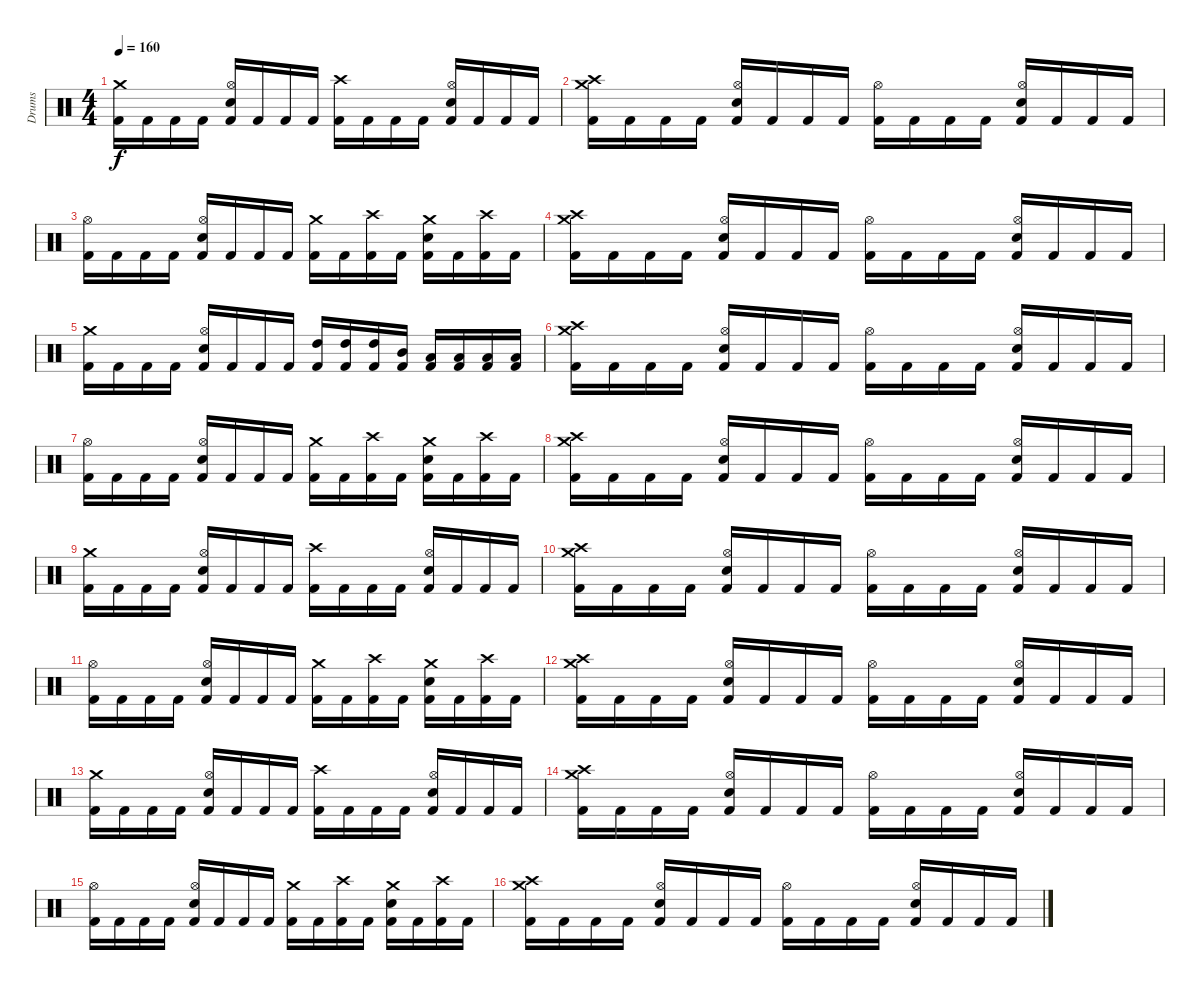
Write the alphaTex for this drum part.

\track ("Drums" "Drums") {instrument percussion}
\staff {score}
\articulation defaults
\ts (4 4)
\tempo 160
\clef neutral
\ks c
("Crash medium (hit)" "Kick (hit) 2").16{dy f} "Kick (hit) 2".16 "Kick (hit) 2".16 "Kick (hit) 2".16 ("Hi-Hat (open)" "Kick (hit) 2" "Snare (hit) 2").16 "Kick (hit) 2".16 "Kick (hit) 2".16 "Kick (hit) 2".16 ("Crash high (hit)" "Kick (hit) 2").16 "Kick (hit) 2".16 "Kick (hit) 2".16 "Kick (hit) 2".16 ("Hi-Hat (open)" "Kick (hit) 2" "Snare (hit) 2").16 "Kick (hit) 2".16 "Kick (hit) 2".16 "Kick (hit) 2".16 |
("Crash medium (hit)" "Crash high (hit)" "Kick (hit) 2").16 "Kick (hit) 2".16 "Kick (hit) 2".16 "Kick (hit) 2".16 ("Hi-Hat (open)" "Kick (hit) 2" "Snare (hit) 2").16 "Kick (hit) 2".16 "Kick (hit) 2".16 "Kick (hit) 2".16 ("Hi-Hat (open)" "Kick (hit) 2").16 "Kick (hit) 2".16 "Kick (hit) 2".16 "Kick (hit) 2".16 ("Hi-Hat (open)" "Kick (hit) 2" "Snare (hit) 2").16 "Kick (hit) 2".16 "Kick (hit) 2".16 "Kick (hit) 2".16 |
("Hi-Hat (open)" "Kick (hit) 2").16 "Kick (hit) 2".16 "Kick (hit) 2".16 "Kick (hit) 2".16 ("Hi-Hat (open)" "Kick (hit) 2" "Snare (hit) 2").16 "Kick (hit) 2".16 "Kick (hit) 2".16 "Kick (hit) 2".16 ("Crash medium (hit)" "Kick (hit) 2").16 "Kick (hit) 2".16 ("Crash high (hit)" "Kick (hit) 2").16 "Kick (hit) 2".16 ("Crash medium (hit)" "Kick (hit) 2" "Snare (hit) 2").16 "Kick (hit) 2".16 ("Crash high (hit)" "Kick (hit) 2").16 "Kick (hit) 2".16 |
("Crash medium (hit)" "Crash high (hit)" "Kick (hit) 2").16 "Kick (hit) 2".16 "Kick (hit) 2".16 "Kick (hit) 2".16 ("Hi-Hat (open)" "Kick (hit) 2" "Snare (hit) 2").16 "Kick (hit) 2".16 "Kick (hit) 2".16 "Kick (hit) 2".16 ("Hi-Hat (open)" "Kick (hit) 2").16 "Kick (hit) 2".16 "Kick (hit) 2".16 "Kick (hit) 2".16 ("Hi-Hat (open)" "Kick (hit) 2" "Snare (hit) 2").16 "Kick (hit) 2".16 "Kick (hit) 2".16 "Kick (hit) 2".16 |
("Crash medium (hit)" "Kick (hit) 2").16 "Kick (hit) 2".16 "Kick (hit) 2".16 "Kick (hit) 2".16 ("Hi-Hat (open)" "Kick (hit) 2" "Snare (hit) 2").16 "Kick (hit) 2".16 "Kick (hit) 2".16 "Kick (hit) 2".16 ("Kick (hit) 2" "High Tom (hit)").16 ("Kick (hit) 2" "High Tom (hit)").16 ("Kick (hit) 2" "High Tom (hit)").16 ("Kick (hit) 2" "Mid Tom (hit)").16 ("Kick (hit) 2" "Low Tom (hit)").16 ("Kick (hit) 2" "Low Tom (hit)").16 ("Kick (hit) 2" "Low Tom (hit)").16 ("Kick (hit) 2" "Low Tom (hit)").16 |
("Crash medium (hit)" "Crash high (hit)" "Kick (hit) 2").16 "Kick (hit) 2".16 "Kick (hit) 2".16 "Kick (hit) 2".16 ("Hi-Hat (open)" "Kick (hit) 2" "Snare (hit) 2").16 "Kick (hit) 2".16 "Kick (hit) 2".16 "Kick (hit) 2".16 ("Hi-Hat (open)" "Kick (hit) 2").16 "Kick (hit) 2".16 "Kick (hit) 2".16 "Kick (hit) 2".16 ("Hi-Hat (open)" "Kick (hit) 2" "Snare (hit) 2").16 "Kick (hit) 2".16 "Kick (hit) 2".16 "Kick (hit) 2".16 |
("Hi-Hat (open)" "Kick (hit) 2").16 "Kick (hit) 2".16 "Kick (hit) 2".16 "Kick (hit) 2".16 ("Hi-Hat (open)" "Kick (hit) 2" "Snare (hit) 2").16 "Kick (hit) 2".16 "Kick (hit) 2".16 "Kick (hit) 2".16 ("Crash medium (hit)" "Kick (hit) 2").16 "Kick (hit) 2".16 ("Crash high (hit)" "Kick (hit) 2").16 "Kick (hit) 2".16 ("Crash medium (hit)" "Kick (hit) 2" "Snare (hit) 2").16 "Kick (hit) 2".16 ("Crash high (hit)" "Kick (hit) 2").16 "Kick (hit) 2".16 |
("Crash medium (hit)" "Crash high (hit)" "Kick (hit) 2").16 "Kick (hit) 2".16 "Kick (hit) 2".16 "Kick (hit) 2".16 ("Hi-Hat (open)" "Kick (hit) 2" "Snare (hit) 2").16 "Kick (hit) 2".16 "Kick (hit) 2".16 "Kick (hit) 2".16 ("Hi-Hat (open)" "Kick (hit) 2").16 "Kick (hit) 2".16 "Kick (hit) 2".16 "Kick (hit) 2".16 ("Hi-Hat (open)" "Kick (hit) 2" "Snare (hit) 2").16 "Kick (hit) 2".16 "Kick (hit) 2".16 "Kick (hit) 2".16 |
("Crash medium (hit)" "Kick (hit) 2").16 "Kick (hit) 2".16 "Kick (hit) 2".16 "Kick (hit) 2".16 ("Hi-Hat (open)" "Kick (hit) 2" "Snare (hit) 2").16 "Kick (hit) 2".16 "Kick (hit) 2".16 "Kick (hit) 2".16 ("Crash high (hit)" "Kick (hit) 2").16 "Kick (hit) 2".16 "Kick (hit) 2".16 "Kick (hit) 2".16 ("Hi-Hat (open)" "Kick (hit) 2" "Snare (hit) 2").16 "Kick (hit) 2".16 "Kick (hit) 2".16 "Kick (hit) 2".16 |
("Crash medium (hit)" "Crash high (hit)" "Kick (hit) 2").16 "Kick (hit) 2".16 "Kick (hit) 2".16 "Kick (hit) 2".16 ("Hi-Hat (open)" "Kick (hit) 2" "Snare (hit) 2").16 "Kick (hit) 2".16 "Kick (hit) 2".16 "Kick (hit) 2".16 ("Hi-Hat (open)" "Kick (hit) 2").16 "Kick (hit) 2".16 "Kick (hit) 2".16 "Kick (hit) 2".16 ("Hi-Hat (open)" "Kick (hit) 2" "Snare (hit) 2").16 "Kick (hit) 2".16 "Kick (hit) 2".16 "Kick (hit) 2".16 |
("Hi-Hat (open)" "Kick (hit) 2").16 "Kick (hit) 2".16 "Kick (hit) 2".16 "Kick (hit) 2".16 ("Hi-Hat (open)" "Kick (hit) 2" "Snare (hit) 2").16 "Kick (hit) 2".16 "Kick (hit) 2".16 "Kick (hit) 2".16 ("Crash medium (hit)" "Kick (hit) 2").16 "Kick (hit) 2".16 ("Crash high (hit)" "Kick (hit) 2").16 "Kick (hit) 2".16 ("Crash medium (hit)" "Kick (hit) 2" "Snare (hit) 2").16 "Kick (hit) 2".16 ("Crash high (hit)" "Kick (hit) 2").16 "Kick (hit) 2".16 |
("Crash medium (hit)" "Crash high (hit)" "Kick (hit) 2").16 "Kick (hit) 2".16 "Kick (hit) 2".16 "Kick (hit) 2".16 ("Hi-Hat (open)" "Kick (hit) 2" "Snare (hit) 2").16 "Kick (hit) 2".16 "Kick (hit) 2".16 "Kick (hit) 2".16 ("Hi-Hat (open)" "Kick (hit) 2").16 "Kick (hit) 2".16 "Kick (hit) 2".16 "Kick (hit) 2".16 ("Hi-Hat (open)" "Kick (hit) 2" "Snare (hit) 2").16 "Kick (hit) 2".16 "Kick (hit) 2".16 "Kick (hit) 2".16 |
("Crash medium (hit)" "Kick (hit) 2").16 "Kick (hit) 2".16 "Kick (hit) 2".16 "Kick (hit) 2".16 ("Hi-Hat (open)" "Kick (hit) 2" "Snare (hit) 2").16 "Kick (hit) 2".16 "Kick (hit) 2".16 "Kick (hit) 2".16 ("Crash high (hit)" "Kick (hit) 2").16 "Kick (hit) 2".16 "Kick (hit) 2".16 "Kick (hit) 2".16 ("Hi-Hat (open)" "Kick (hit) 2" "Snare (hit) 2").16 "Kick (hit) 2".16 "Kick (hit) 2".16 "Kick (hit) 2".16 |
("Crash medium (hit)" "Crash high (hit)" "Kick (hit) 2").16 "Kick (hit) 2".16 "Kick (hit) 2".16 "Kick (hit) 2".16 ("Hi-Hat (open)" "Kick (hit) 2" "Snare (hit) 2").16 "Kick (hit) 2".16 "Kick (hit) 2".16 "Kick (hit) 2".16 ("Hi-Hat (open)" "Kick (hit) 2").16 "Kick (hit) 2".16 "Kick (hit) 2".16 "Kick (hit) 2".16 ("Hi-Hat (open)" "Kick (hit) 2" "Snare (hit) 2").16 "Kick (hit) 2".16 "Kick (hit) 2".16 "Kick (hit) 2".16 |
("Hi-Hat (open)" "Kick (hit) 2").16 "Kick (hit) 2".16 "Kick (hit) 2".16 "Kick (hit) 2".16 ("Hi-Hat (open)" "Kick (hit) 2" "Snare (hit) 2").16 "Kick (hit) 2".16 "Kick (hit) 2".16 "Kick (hit) 2".16 ("Crash medium (hit)" "Kick (hit) 2").16 "Kick (hit) 2".16 ("Crash high (hit)" "Kick (hit) 2").16 "Kick (hit) 2".16 ("Crash medium (hit)" "Kick (hit) 2" "Snare (hit) 2").16 "Kick (hit) 2".16 ("Crash high (hit)" "Kick (hit) 2").16 "Kick (hit) 2".16 |
("Crash medium (hit)" "Crash high (hit)" "Kick (hit) 2").16 "Kick (hit) 2".16 "Kick (hit) 2".16 "Kick (hit) 2".16 ("Hi-Hat (open)" "Kick (hit) 2" "Snare (hit) 2").16 "Kick (hit) 2".16 "Kick (hit) 2".16 "Kick (hit) 2".16 ("Hi-Hat (open)" "Kick (hit) 2").16 "Kick (hit) 2".16 "Kick (hit) 2".16 "Kick (hit) 2".16 ("Hi-Hat (open)" "Kick (hit) 2" "Snare (hit) 2").16 "Kick (hit) 2".16 "Kick (hit) 2".16 "Kick (hit) 2".16
